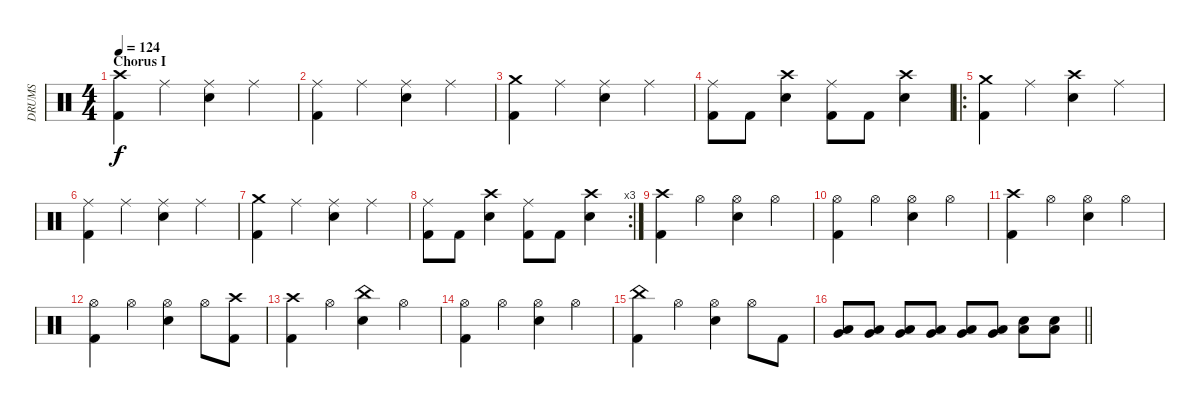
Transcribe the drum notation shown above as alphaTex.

\track ("DRUMS" "DRUMS") {instrument percussion}
\staff {score}
\articulation defaults
\ts (4 4)
\section ("" "Chorus I")
\tempo 124
\clef neutral
\ks c
("Crash high (hit)" "Kick (hit) 2").4{dy f} "Ride (middle)".4 ("Ride (middle)" "Snare (hit) 2").4 "Ride (middle)".4 |
("Ride (middle)" "Kick (hit) 2").4 "Ride (middle)".4 ("Ride (middle)" "Snare (hit) 2").4 "Ride (middle)".4 |
("Crash medium (hit)" "Kick (hit) 2").4 "Ride (middle)".4 ("Ride (middle)" "Snare (hit) 2").4 "Ride (middle)".4 |
("Ride (middle)" "Kick (hit) 2").8 "Kick (hit) 2".8 ("Crash high (hit)" "Snare (hit) 2").4 ("Ride (middle)" "Kick (hit) 2").8 "Kick (hit) 2".8 ("Crash high (hit)" "Snare (hit) 2").4 |
\ro
("Crash medium (hit)" "Kick (hit) 2").4 "Ride (middle)".4 ("Crash high (hit)" "Snare (hit) 2").4 "Ride (middle)".4 |
("Ride (middle)" "Kick (hit) 2").4 "Ride (middle)".4 ("Ride (middle)" "Snare (hit) 2").4 "Ride (middle)".4 |
("Crash medium (hit)" "Kick (hit) 2").4 "Ride (middle)".4 ("Ride (middle)" "Snare (hit) 2").4 "Ride (middle)".4 |
\rc 3
("Ride (middle)" "Kick (hit) 2").8 "Kick (hit) 2".8 ("Crash high (hit)" "Snare (hit) 2").4 ("Ride (middle)" "Kick (hit) 2").8 "Kick (hit) 2".8 ("Crash high (hit)" "Snare (hit) 2").4 |
("Crash high (hit)" "Kick (hit) 2").4 "Hi-Hat (open)".4 ("Hi-Hat (open)" "Snare (hit) 2").4 "Hi-Hat (open)".4 |
("Hi-Hat (open)" "Kick (hit) 2").4 "Hi-Hat (open)".4 ("Hi-Hat (open)" "Snare (hit) 2").4 "Hi-Hat (open)".4 |
("Crash high (hit)" "Kick (hit) 2").4 "Hi-Hat (open)".4 ("Hi-Hat (open)" "Snare (hit) 2").4 "Hi-Hat (open)".4 |
("Hi-Hat (open)" "Kick (hit) 2").4 "Hi-Hat (open)".4 ("Hi-Hat (open)" "Snare (hit) 2").4 "Hi-Hat (open)".8 ("Crash high (hit)" "Kick (hit) 2").8 |
("Crash high (hit)" "Kick (hit) 2").4 "Hi-Hat (open)".4 ("China (hit)" "Snare (hit) 2").4 "Hi-Hat (open)".4 |
("Hi-Hat (open)" "Kick (hit) 2").4 "Hi-Hat (open)".4 ("Hi-Hat (open)" "Snare (hit) 2").4 "Hi-Hat (open)".4 |
("China (hit)" "Kick (hit) 2").4 "Hi-Hat (open)".4 ("Hi-Hat (open)" "Snare (hit) 2").4 "Hi-Hat (open)".8 "Kick (hit) 2".8 |
\barLineRight lightlight
("Very Low Tom (hit)" "Low Tom (hit)").8 ("Very Low Tom (hit)" "Low Tom (hit)").8 ("Very Low Tom (hit)" "Low Tom (hit)").8 ("Very Low Tom (hit)" "Low Floor Tom (hit)").8 ("Very Low Tom (hit)" "Low Floor Tom (hit)").8 ("Very Low Tom (hit)" "Low Floor Tom (hit)").8 ("Low Floor Tom (hit)" "Snare (hit) 2").8 ("Low Floor Tom (hit)" "Snare (hit) 2").8
